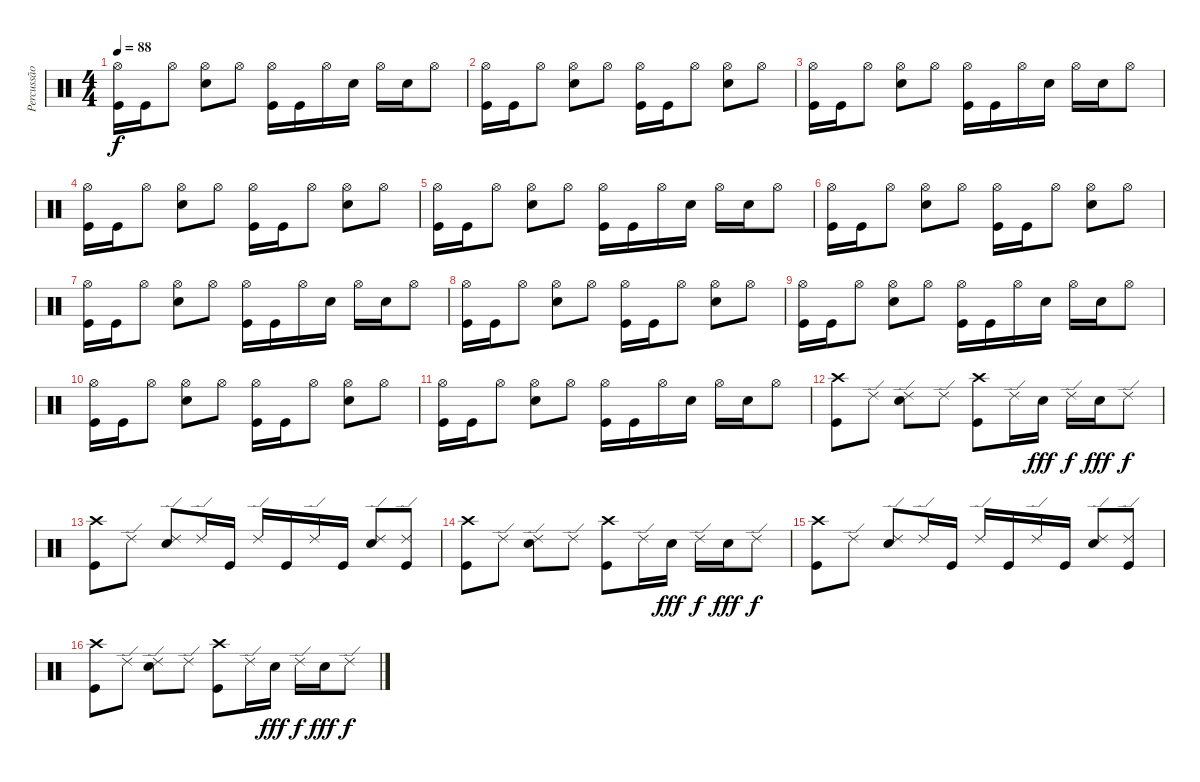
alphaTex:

\track ("Percussão" "Percussão") {instrument percussion}
\staff {score}
\articulation defaults
\ts (4 4)
\tempo 88
\clef neutral
\ks c
("Hi-Hat (open)" "Kick (hit)").16{dy f} "Kick (hit)".16 "Hi-Hat (open)".8 ("Hi-Hat (open)" "Electric Snare (hit)").8 "Hi-Hat (open)".8 ("Hi-Hat (open)" "Kick (hit)").16 "Kick (hit)".16 "Hi-Hat (open)".16 "Electric Snare (hit)".16 "Hi-Hat (open)".16 "Electric Snare (hit)".16 "Hi-Hat (open)".8 |
("Hi-Hat (open)" "Kick (hit)").16 "Kick (hit)".16 "Hi-Hat (open)".8 ("Hi-Hat (open)" "Electric Snare (hit)").8 "Hi-Hat (open)".8 ("Hi-Hat (open)" "Kick (hit)").16 "Kick (hit)".16 "Hi-Hat (open)".8 ("Hi-Hat (open)" "Electric Snare (hit)").8 "Hi-Hat (open)".8 |
("Hi-Hat (open)" "Kick (hit)").16 "Kick (hit)".16 "Hi-Hat (open)".8 ("Hi-Hat (open)" "Electric Snare (hit)").8 "Hi-Hat (open)".8 ("Hi-Hat (open)" "Kick (hit)").16 "Kick (hit)".16 "Hi-Hat (open)".16 "Electric Snare (hit)".16 "Hi-Hat (open)".16 "Electric Snare (hit)".16 "Hi-Hat (open)".8 |
("Hi-Hat (open)" "Kick (hit)").16 "Kick (hit)".16 "Hi-Hat (open)".8 ("Hi-Hat (open)" "Electric Snare (hit)").8 "Hi-Hat (open)".8 ("Hi-Hat (open)" "Kick (hit)").16 "Kick (hit)".16 "Hi-Hat (open)".8 ("Hi-Hat (open)" "Electric Snare (hit)").8 "Hi-Hat (open)".8 |
("Hi-Hat (open)" "Kick (hit)").16 "Kick (hit)".16 "Hi-Hat (open)".8 ("Hi-Hat (open)" "Electric Snare (hit)").8 "Hi-Hat (open)".8 ("Hi-Hat (open)" "Kick (hit)").16 "Kick (hit)".16 "Hi-Hat (open)".16 "Electric Snare (hit)".16 "Hi-Hat (open)".16 "Electric Snare (hit)".16 "Hi-Hat (open)".8 |
("Hi-Hat (open)" "Kick (hit)").16 "Kick (hit)".16 "Hi-Hat (open)".8 ("Hi-Hat (open)" "Electric Snare (hit)").8 "Hi-Hat (open)".8 ("Hi-Hat (open)" "Kick (hit)").16 "Kick (hit)".16 "Hi-Hat (open)".8 ("Hi-Hat (open)" "Electric Snare (hit)").8 "Hi-Hat (open)".8 |
("Hi-Hat (open)" "Kick (hit)").16 "Kick (hit)".16 "Hi-Hat (open)".8 ("Hi-Hat (open)" "Electric Snare (hit)").8 "Hi-Hat (open)".8 ("Hi-Hat (open)" "Kick (hit)").16 "Kick (hit)".16 "Hi-Hat (open)".16 "Electric Snare (hit)".16 "Hi-Hat (open)".16 "Electric Snare (hit)".16 "Hi-Hat (open)".8 |
("Hi-Hat (open)" "Kick (hit)").16 "Kick (hit)".16 "Hi-Hat (open)".8 ("Hi-Hat (open)" "Electric Snare (hit)").8 "Hi-Hat (open)".8 ("Hi-Hat (open)" "Kick (hit)").16 "Kick (hit)".16 "Hi-Hat (open)".8 ("Hi-Hat (open)" "Electric Snare (hit)").8 "Hi-Hat (open)".8 |
("Hi-Hat (open)" "Kick (hit)").16 "Kick (hit)".16 "Hi-Hat (open)".8 ("Hi-Hat (open)" "Electric Snare (hit)").8 "Hi-Hat (open)".8 ("Hi-Hat (open)" "Kick (hit)").16 "Kick (hit)".16 "Hi-Hat (open)".16 "Electric Snare (hit)".16 "Hi-Hat (open)".16 "Electric Snare (hit)".16 "Hi-Hat (open)".8 |
("Hi-Hat (open)" "Kick (hit)").16 "Kick (hit)".16 "Hi-Hat (open)".8 ("Hi-Hat (open)" "Electric Snare (hit)").8 "Hi-Hat (open)".8 ("Hi-Hat (open)" "Kick (hit)").16 "Kick (hit)".16 "Hi-Hat (open)".8 ("Hi-Hat (open)" "Electric Snare (hit)").8 "Hi-Hat (open)".8 |
("Hi-Hat (open)" "Kick (hit)").16 "Kick (hit)".16 "Hi-Hat (open)".8 ("Hi-Hat (open)" "Electric Snare (hit)").8 "Hi-Hat (open)".8 ("Hi-Hat (open)" "Kick (hit)").16 "Kick (hit)".16 "Hi-Hat (open)".16 "Electric Snare (hit)".16 "Hi-Hat (open)".16 "Electric Snare (hit)".16 "Hi-Hat (open)".8 |
("Crash high (hit)" "Kick (hit)").8 "Ride (edge) 2".8 ("Ride (edge) 2" "Electric Snare (hit)").8 "Ride (edge) 2".8 ("Crash high (hit)" "Kick (hit)").8 "Ride (edge) 2".16 "Electric Snare (hit)".16{dy fff} "Ride (edge) 2".16{dy f} "Electric Snare (hit)".16{dy fff} "Ride (edge) 2".8{dy f} |
("Crash high (hit)" "Kick (hit)").8 "Ride (edge) 2".8 ("Ride (edge) 2" "Electric Snare (hit)").8 "Ride (edge) 2".16 "Kick (hit)".16 "Ride (edge) 2".16 "Kick (hit)".16 "Ride (edge) 2".16 "Kick (hit)".16 ("Ride (edge) 2" "Electric Snare (hit)").8 ("Ride (edge) 2" "Kick (hit)").8 |
("Crash high (hit)" "Kick (hit)").8 "Ride (edge) 2".8 ("Ride (edge) 2" "Electric Snare (hit)").8 "Ride (edge) 2".8 ("Crash high (hit)" "Kick (hit)").8 "Ride (edge) 2".16 "Electric Snare (hit)".16{dy fff} "Ride (edge) 2".16{dy f} "Electric Snare (hit)".16{dy fff} "Ride (edge) 2".8{dy f} |
("Crash high (hit)" "Kick (hit)").8 "Ride (edge) 2".8 ("Ride (edge) 2" "Electric Snare (hit)").8 "Ride (edge) 2".16 "Kick (hit)".16 "Ride (edge) 2".16 "Kick (hit)".16 "Ride (edge) 2".16 "Kick (hit)".16 ("Ride (edge) 2" "Electric Snare (hit)").8 ("Ride (edge) 2" "Kick (hit)").8 |
("Crash high (hit)" "Kick (hit)").8 "Ride (edge) 2".8 ("Ride (edge) 2" "Electric Snare (hit)").8 "Ride (edge) 2".8 ("Crash high (hit)" "Kick (hit)").8 "Ride (edge) 2".16 "Electric Snare (hit)".16{dy fff} "Ride (edge) 2".16{dy f} "Electric Snare (hit)".16{dy fff} "Ride (edge) 2".8{dy f}
